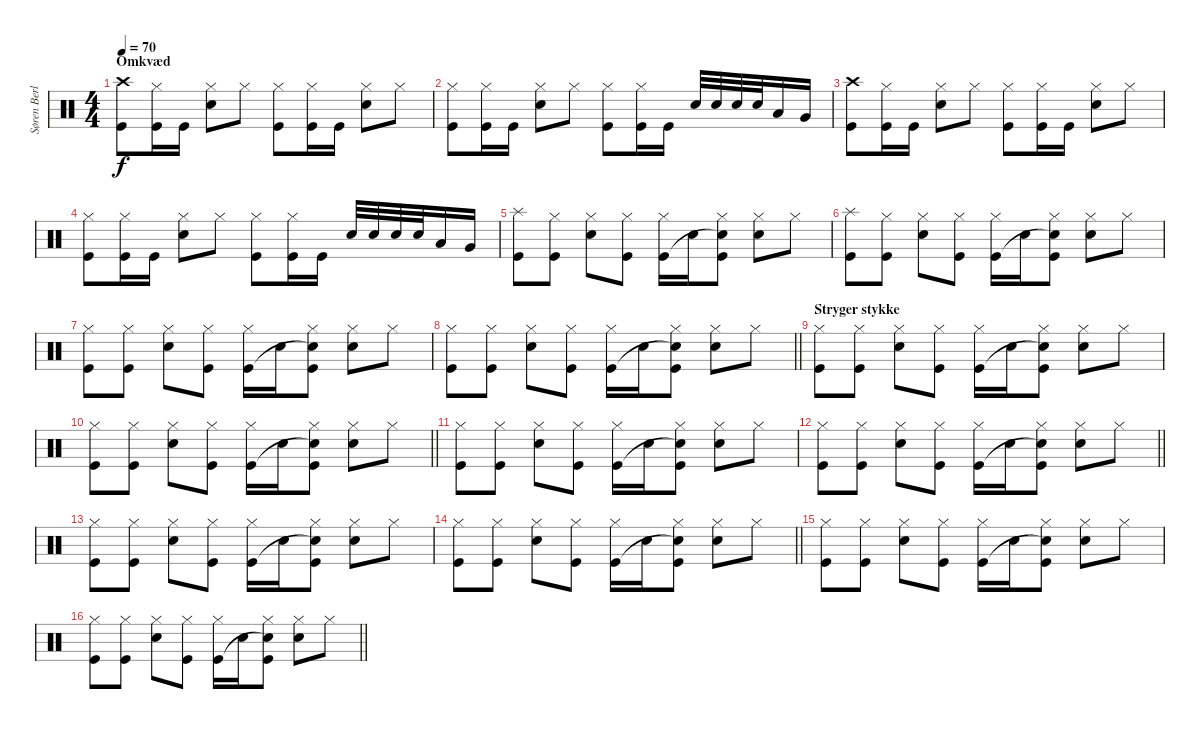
\track ("Søren Berlev" "Søren Berl") {instrument percussion}
\staff {score}
\articulation defaults
\ts (4 4)
\section ("" "Omkvæd")
\tempo 70
\clef neutral
\ks c
("Crash high (hit)" "Kick (hit)").8{dy f} ("Hi-Hat (closed)" "Kick (hit)").16 "Kick (hit)".16 ("Hi-Hat (closed)" "Snare (hit) 2").8 "Hi-Hat (closed)".8 ("Hi-Hat (closed)" "Kick (hit)").8 ("Hi-Hat (closed)" "Kick (hit)").16 "Kick (hit)".16 ("Hi-Hat (closed)" "Snare (hit) 2").8 "Hi-Hat (closed)".8 |
("Hi-Hat (closed)" "Kick (hit)").8 ("Hi-Hat (closed)" "Kick (hit)").16 "Kick (hit)".16 ("Hi-Hat (closed)" "Snare (hit) 2").8 "Hi-Hat (closed)".8 ("Hi-Hat (closed)" "Kick (hit)").8 ("Hi-Hat (closed)" "Kick (hit)").16 "Kick (hit)".16 "Snare (hit) 2".32 "Snare (hit) 2".32 "Snare (hit) 2".32 "Snare (hit) 2".32 "Low Tom (hit)".16 "Very Low Tom (hit)".16 |
("Crash high (hit)" "Kick (hit)").8 ("Hi-Hat (closed)" "Kick (hit)").16 "Kick (hit)".16 ("Hi-Hat (closed)" "Snare (hit) 2").8 "Hi-Hat (closed)".8 ("Hi-Hat (closed)" "Kick (hit)").8 ("Hi-Hat (closed)" "Kick (hit)").16 "Kick (hit)".16 ("Hi-Hat (closed)" "Snare (hit) 2").8 "Hi-Hat (closed)".8 |
("Hi-Hat (closed)" "Kick (hit)").8 ("Hi-Hat (closed)" "Kick (hit)").16 "Kick (hit)".16 ("Hi-Hat (closed)" "Snare (hit) 2").8 "Hi-Hat (closed)".8 ("Hi-Hat (closed)" "Kick (hit)").8 ("Hi-Hat (closed)" "Kick (hit)").16 "Kick (hit)".16 "Snare (hit) 2".32 "Snare (hit) 2".32 "Snare (hit) 2".32 "Snare (hit) 2".32 "Low Tom (hit)".16 "Very Low Tom (hit)".16 |
("Splash (hit)" "Kick (hit)").8 ("Hi-Hat (closed)" "Kick (hit)").8 ("Hi-Hat (closed)" "Snare (hit) 2").8 ("Hi-Hat (closed)" "Kick (hit)").8 ("Hi-Hat (closed)" "Kick (hit)").16 "Snare (hit) 2".16 ("Hi-Hat (closed)" "Snare (hit)"{t} "Kick (hit)").8 ("Hi-Hat (closed)" "Snare (hit) 2").8 "Hi-Hat (closed)".8 |
("Splash (hit)" "Kick (hit)").8 ("Hi-Hat (closed)" "Kick (hit)").8 ("Hi-Hat (closed)" "Snare (hit) 2").8 ("Hi-Hat (closed)" "Kick (hit)").8 ("Hi-Hat (closed)" "Kick (hit)").16 "Snare (hit) 2".16 ("Hi-Hat (closed)" "Snare (hit)"{t} "Kick (hit)").8 ("Hi-Hat (closed)" "Snare (hit) 2").8 "Hi-Hat (closed)".8 |
("Hi-Hat (closed)" "Kick (hit)").8 ("Hi-Hat (closed)" "Kick (hit)").8 ("Hi-Hat (closed)" "Snare (hit) 2").8 ("Hi-Hat (closed)" "Kick (hit)").8 ("Hi-Hat (closed)" "Kick (hit)").16 "Snare (hit) 2".16 ("Hi-Hat (closed)" "Snare (hit)"{t} "Kick (hit)").8 ("Hi-Hat (closed)" "Snare (hit) 2").8 "Hi-Hat (closed)".8 |
\barLineRight lightlight
("Hi-Hat (closed)" "Kick (hit)").8 ("Hi-Hat (closed)" "Kick (hit)").8 ("Hi-Hat (closed)" "Snare (hit) 2").8 ("Hi-Hat (closed)" "Kick (hit)").8 ("Hi-Hat (closed)" "Kick (hit)").16 "Snare (hit) 2".16 ("Hi-Hat (closed)" "Snare (hit)"{t} "Kick (hit)").8 ("Hi-Hat (closed)" "Snare (hit) 2").8 "Hi-Hat (closed)".8 |
\section ("" "Stryger stykke")
("Hi-Hat (closed)" "Kick (hit)").8 ("Hi-Hat (closed)" "Kick (hit)").8 ("Hi-Hat (closed)" "Snare (hit) 2").8 ("Hi-Hat (closed)" "Kick (hit)").8 ("Hi-Hat (closed)" "Kick (hit)").16 "Snare (hit) 2".16 ("Hi-Hat (closed)" "Snare (hit)"{t} "Kick (hit)").8 ("Hi-Hat (closed)" "Snare (hit) 2").8 "Hi-Hat (closed)".8 |
\barLineRight lightlight
("Hi-Hat (closed)" "Kick (hit)").8 ("Hi-Hat (closed)" "Kick (hit)").8 ("Hi-Hat (closed)" "Snare (hit) 2").8 ("Hi-Hat (closed)" "Kick (hit)").8 ("Hi-Hat (closed)" "Kick (hit)").16 "Snare (hit) 2".16 ("Hi-Hat (closed)" "Snare (hit)"{t} "Kick (hit)").8 ("Hi-Hat (closed)" "Snare (hit) 2").8 "Hi-Hat (closed)".8 |
("Hi-Hat (closed)" "Kick (hit)").8 ("Hi-Hat (closed)" "Kick (hit)").8 ("Hi-Hat (closed)" "Snare (hit) 2").8 ("Hi-Hat (closed)" "Kick (hit)").8 ("Hi-Hat (closed)" "Kick (hit)").16 "Snare (hit) 2".16 ("Hi-Hat (closed)" "Snare (hit)"{t} "Kick (hit)").8 ("Hi-Hat (closed)" "Snare (hit) 2").8 "Hi-Hat (closed)".8 |
\barLineRight lightlight
("Hi-Hat (closed)" "Kick (hit)").8 ("Hi-Hat (closed)" "Kick (hit)").8 ("Hi-Hat (closed)" "Snare (hit) 2").8 ("Hi-Hat (closed)" "Kick (hit)").8 ("Hi-Hat (closed)" "Kick (hit)").16 "Snare (hit) 2".16 ("Hi-Hat (closed)" "Snare (hit)"{t} "Kick (hit)").8 ("Hi-Hat (closed)" "Snare (hit) 2").8 "Hi-Hat (closed)".8 |
("Hi-Hat (closed)" "Kick (hit)").8 ("Hi-Hat (closed)" "Kick (hit)").8 ("Hi-Hat (closed)" "Snare (hit) 2").8 ("Hi-Hat (closed)" "Kick (hit)").8 ("Hi-Hat (closed)" "Kick (hit)").16 "Snare (hit) 2".16 ("Hi-Hat (closed)" "Snare (hit)"{t} "Kick (hit)").8 ("Hi-Hat (closed)" "Snare (hit) 2").8 "Hi-Hat (closed)".8 |
\barLineRight lightlight
("Hi-Hat (closed)" "Kick (hit)").8 ("Hi-Hat (closed)" "Kick (hit)").8 ("Hi-Hat (closed)" "Snare (hit) 2").8 ("Hi-Hat (closed)" "Kick (hit)").8 ("Hi-Hat (closed)" "Kick (hit)").16 "Snare (hit) 2".16 ("Hi-Hat (closed)" "Snare (hit)"{t} "Kick (hit)").8 ("Hi-Hat (closed)" "Snare (hit) 2").8 "Hi-Hat (closed)".8 |
("Hi-Hat (closed)" "Kick (hit)").8 ("Hi-Hat (closed)" "Kick (hit)").8 ("Hi-Hat (closed)" "Snare (hit) 2").8 ("Hi-Hat (closed)" "Kick (hit)").8 ("Hi-Hat (closed)" "Kick (hit)").16 "Snare (hit) 2".16 ("Hi-Hat (closed)" "Snare (hit)"{t} "Kick (hit)").8 ("Hi-Hat (closed)" "Snare (hit) 2").8 "Hi-Hat (closed)".8 |
\barLineRight lightlight
("Hi-Hat (closed)" "Kick (hit)").8 ("Hi-Hat (closed)" "Kick (hit)").8 ("Hi-Hat (closed)" "Snare (hit) 2").8 ("Hi-Hat (closed)" "Kick (hit)").8 ("Hi-Hat (closed)" "Kick (hit)").16 "Snare (hit) 2".16 ("Hi-Hat (closed)" "Snare (hit)"{t} "Kick (hit)").8 ("Hi-Hat (closed)" "Snare (hit) 2").8 "Hi-Hat (closed)".8
